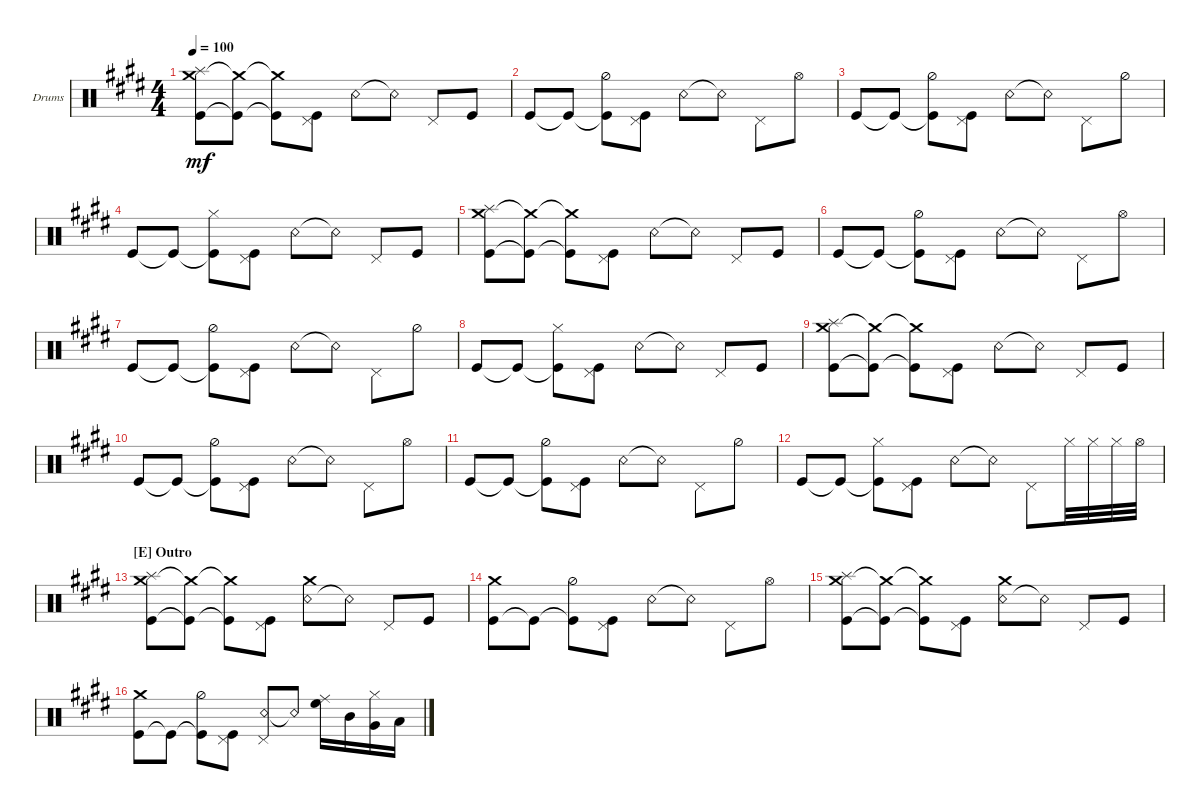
\defaultSystemsLayout 4
\bracketExtendMode groupsimilarinstruments
\firstSystemTrackNameOrientation horizontal
\otherSystemsTrackNameOrientation horizontal
\track ("Drumkit" "Drums") {multiBarRest instrument percussion}
\staff {score}
\articulation defaults
\ts (4 4)
\tempo 100
\clef neutral
\ks e
("Kick (hit)" "Crash medium (hit)" "Splash (hit)").8{dy mf} ("Kick (hit)"{t} "Crash medium (hit)"{t}).8 ("Kick (hit)"{t} "Crash medium (hit)"{t}).8 ("Kick (hit)" "Pedal Hi-Hat (hit)").8 "Snare (rim shot)".8 "Snare (rim shot)"{t}.8 "Pedal Hi-Hat (hit)".8 "Kick (hit)".8 |
"Kick (hit)".8 "Kick (hit)"{t}.8 ("Kick (hit)"{t} "Hi-Hat (half)").8 ("Kick (hit)" "Pedal Hi-Hat (hit)").8 "Snare (rim shot)".8 "Snare (rim shot)"{t}.8 "Pedal Hi-Hat (hit)".8 "Hi-Hat (open)".8 |
"Kick (hit)".8 "Kick (hit)"{t}.8 ("Kick (hit)"{t} "Hi-Hat (half)").8 ("Kick (hit)" "Pedal Hi-Hat (hit)").8 "Snare (rim shot)".8 "Snare (rim shot)"{t}.8 "Pedal Hi-Hat (hit)".8 "Hi-Hat (half)".8 |
"Kick (hit)".8 "Kick (hit)"{t}.8 ("Kick (hit)"{t} "Hi-Hat (closed)").8 ("Kick (hit)" "Pedal Hi-Hat (hit)").8 "Snare (rim shot)".8 "Snare (rim shot)"{t}.8 "Pedal Hi-Hat (hit)".8 "Kick (hit)".8 |
("Kick (hit)" "Crash medium (hit)" "Splash (hit)").8 ("Kick (hit)"{t} "Crash medium (hit)"{t}).8 ("Kick (hit)"{t} "Crash medium (hit)"{t}).8 ("Kick (hit)" "Pedal Hi-Hat (hit)").8 "Snare (rim shot)".8 "Snare (rim shot)"{t}.8 "Pedal Hi-Hat (hit)".8 "Kick (hit)".8 |
"Kick (hit)".8 "Kick (hit)"{t}.8 ("Kick (hit)"{t} "Hi-Hat (half)").8 ("Kick (hit)" "Pedal Hi-Hat (hit)").8 "Snare (rim shot)".8 "Snare (rim shot)"{t}.8 "Pedal Hi-Hat (hit)".8 "Hi-Hat (open)".8 |
"Kick (hit)".8 "Kick (hit)"{t}.8 ("Kick (hit)"{t} "Hi-Hat (half)").8 ("Kick (hit)" "Pedal Hi-Hat (hit)").8 "Snare (rim shot)".8 "Snare (rim shot)"{t}.8 "Pedal Hi-Hat (hit)".8 "Hi-Hat (half)".8 |
"Kick (hit)".8 "Kick (hit)"{t}.8 ("Kick (hit)"{t} "Hi-Hat (closed)").8 ("Kick (hit)" "Pedal Hi-Hat (hit)").8 "Snare (rim shot)".8 "Snare (rim shot)"{t}.8 "Pedal Hi-Hat (hit)".8 "Kick (hit)".8 |
("Kick (hit)" "Crash medium (hit)" "Splash (hit)").8 ("Kick (hit)"{t} "Crash medium (hit)"{t}).8 ("Kick (hit)"{t} "Crash medium (hit)"{t}).8 ("Kick (hit)" "Pedal Hi-Hat (hit)").8 "Snare (rim shot)".8 "Snare (rim shot)"{t}.8 "Pedal Hi-Hat (hit)".8 "Kick (hit)".8 |
"Kick (hit)".8 "Kick (hit)"{t}.8 ("Kick (hit)"{t} "Hi-Hat (half)").8 ("Kick (hit)" "Pedal Hi-Hat (hit)").8 "Snare (rim shot)".8 "Snare (rim shot)"{t}.8 "Pedal Hi-Hat (hit)".8 "Hi-Hat (open)".8 |
"Kick (hit)".8 "Kick (hit)"{t}.8 ("Kick (hit)"{t} "Hi-Hat (half)").8 ("Kick (hit)" "Pedal Hi-Hat (hit)").8 "Snare (rim shot)".8 "Snare (rim shot)"{t}.8 "Pedal Hi-Hat (hit)".8 "Hi-Hat (half)".8 |
"Kick (hit)".8 "Kick (hit)"{t}.8 ("Kick (hit)"{t} "Hi-Hat (closed)").8 ("Kick (hit)" "Pedal Hi-Hat (hit)").8 "Snare (rim shot)".8 "Snare (rim shot)"{t}.8 "Pedal Hi-Hat (hit)".8 "Hi-Hat (closed)".32 "Hi-Hat (closed)".32 "Hi-Hat (closed)".32 "Hi-Hat (open)".32 |
\section ("E" "Outro")
("Kick (hit)" "Crash medium (hit)" "Splash (hit)").8 ("Kick (hit)"{t} "Crash medium (hit)"{t}).8 ("Kick (hit)"{t} "Crash medium (hit)"{t}).8 ("Kick (hit)" "Pedal Hi-Hat (hit)").8 ("Snare (rim shot)" "Crash medium (hit)").8 "Snare (rim shot)"{t}.8 "Pedal Hi-Hat (hit)".8 "Kick (hit)".8 |
("Kick (hit)" "Crash medium (hit)").8 "Kick (hit)"{t}.8 ("Kick (hit)"{t} "Hi-Hat (half)").8 ("Kick (hit)" "Pedal Hi-Hat (hit)").8 "Snare (rim shot)".8 "Snare (rim shot)"{t}.8 "Pedal Hi-Hat (hit)".8 "Hi-Hat (open)".8 |
("Kick (hit)" "Crash medium (hit)" "Splash (hit)").8 ("Kick (hit)"{t} "Crash medium (hit)"{t}).8 ("Kick (hit)"{t} "Crash medium (hit)"{t}).8 ("Kick (hit)" "Pedal Hi-Hat (hit)").8 ("Snare (rim shot)" "Crash medium (hit)").8 "Snare (rim shot)"{t}.8 "Pedal Hi-Hat (hit)".8 "Kick (hit)".8 |
("Kick (hit)" "Crash medium (hit)").8 "Kick (hit)"{t}.8 ("Kick (hit)"{t} "Hi-Hat (half)").8 ("Kick (hit)" "Pedal Hi-Hat (hit)").8 ("Snare (rim shot)" "Pedal Hi-Hat (hit)").8 "Snare (rim shot)"{t}.8 ("High Floor Tom (hit)" "Ride (middle)").16 "Mid Tom (hit)".16 ("Very Low Tom (hit)" "Hi-Hat (closed)").16 "Low Tom (hit)".16
